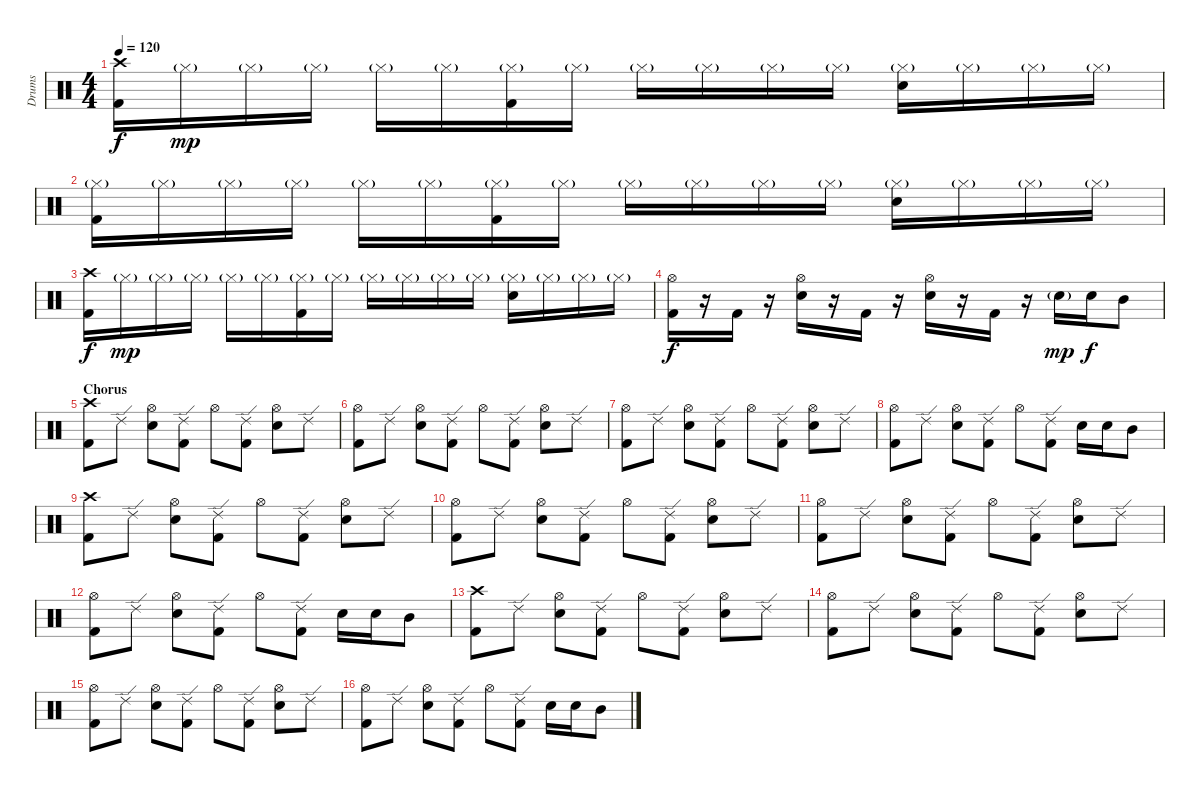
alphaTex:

\track ("Drums" "Drums") {instrument percussion}
\staff {score}
\articulation defaults
\ts (4 4)
\tempo 120
\clef neutral
\ks c
("Crash high (hit)" "Kick (hit) 2").16{dy f} "Hi-Hat (closed)"{g}.16{dy mp} "Hi-Hat (closed)"{g}.16 "Hi-Hat (closed)"{g}.16 "Hi-Hat (closed)"{g}.16 "Hi-Hat (closed)"{g}.16 ("Hi-Hat (closed)"{g} "Kick (hit) 2").16 "Hi-Hat (closed)"{g}.16 "Hi-Hat (closed)"{g}.16 "Hi-Hat (closed)"{g}.16 "Hi-Hat (closed)"{g}.16 "Hi-Hat (closed)"{g}.16 ("Hi-Hat (closed)"{g} "Electric Snare (hit)").16 "Hi-Hat (closed)"{g}.16 "Hi-Hat (closed)"{g}.16 "Hi-Hat (closed)"{g}.16 |
("Hi-Hat (closed)"{g} "Kick (hit) 2").16 "Hi-Hat (closed)"{g}.16 "Hi-Hat (closed)"{g}.16 "Hi-Hat (closed)"{g}.16 "Hi-Hat (closed)"{g}.16 "Hi-Hat (closed)"{g}.16 ("Hi-Hat (closed)"{g} "Kick (hit) 2").16 "Hi-Hat (closed)"{g}.16 "Hi-Hat (closed)"{g}.16 "Hi-Hat (closed)"{g}.16 "Hi-Hat (closed)"{g}.16 "Hi-Hat (closed)"{g}.16 ("Hi-Hat (closed)"{g} "Electric Snare (hit)").16 "Hi-Hat (closed)"{g}.16 "Hi-Hat (closed)"{g}.16 "Hi-Hat (closed)"{g}.16 |
("Crash high (hit)" "Kick (hit) 2").16{dy f} "Hi-Hat (closed)"{g}.16{dy mp} "Hi-Hat (closed)"{g}.16 "Hi-Hat (closed)"{g}.16 "Hi-Hat (closed)"{g}.16 "Hi-Hat (closed)"{g}.16 ("Hi-Hat (closed)"{g} "Kick (hit) 2").16 "Hi-Hat (closed)"{g}.16 "Hi-Hat (closed)"{g}.16 "Hi-Hat (closed)"{g}.16 "Hi-Hat (closed)"{g}.16 "Hi-Hat (closed)"{g}.16 ("Hi-Hat (closed)"{g} "Electric Snare (hit)").16 "Hi-Hat (closed)"{g}.16 "Hi-Hat (closed)"{g}.16 "Hi-Hat (closed)"{g}.16 |
("Hi-Hat (open)" "Kick (hit) 2").16{dy f} r.16 "Kick (hit) 2".16 r.16 ("Hi-Hat (open)" "Electric Snare (hit)").16 r.16 "Kick (hit) 2".16 r.16 ("Hi-Hat (open)" "Electric Snare (hit)").16 r.16 "Kick (hit) 2".16 r.16 "Electric Snare (hit)"{g}.16{dy mp} "Electric Snare (hit)".16{dy f} "Mid Tom (hit)".8 |
\section ("" "Chorus")
("Crash high (hit)" "Kick (hit) 2").8 "Ride (edge) 2".8 ("Hi-Hat (open)" "Electric Snare (hit)").8 ("Ride (edge) 2" "Kick (hit) 2").8 "Hi-Hat (open)".8 ("Ride (edge) 2" "Kick (hit) 2").8 ("Hi-Hat (open)" "Electric Snare (hit)").8 "Ride (edge) 2".8 |
("Hi-Hat (open)" "Kick (hit) 2").8 "Ride (edge) 2".8 ("Hi-Hat (open)" "Electric Snare (hit)").8 ("Ride (edge) 2" "Kick (hit) 2").8 "Hi-Hat (open)".8 ("Ride (edge) 2" "Kick (hit) 2").8 ("Hi-Hat (open)" "Electric Snare (hit)").8 "Ride (edge) 2".8 |
("Hi-Hat (open)" "Kick (hit) 2").8 "Ride (edge) 2".8 ("Hi-Hat (open)" "Electric Snare (hit)").8 ("Ride (edge) 2" "Kick (hit) 2").8 "Hi-Hat (open)".8 ("Ride (edge) 2" "Kick (hit) 2").8 ("Hi-Hat (open)" "Electric Snare (hit)").8 "Ride (edge) 2".8 |
("Hi-Hat (open)" "Kick (hit) 2").8 "Ride (edge) 2".8 ("Hi-Hat (open)" "Electric Snare (hit)").8 ("Ride (edge) 2" "Kick (hit) 2").8 "Hi-Hat (open)".8 ("Ride (edge) 2" "Kick (hit) 2").8 "Electric Snare (hit)".16 "Electric Snare (hit)".16 "Mid Tom (hit)".8 |
("Crash high (hit)" "Kick (hit) 2").8 "Ride (edge) 2".8 ("Hi-Hat (open)" "Electric Snare (hit)").8 ("Ride (edge) 2" "Kick (hit) 2").8 "Hi-Hat (open)".8 ("Ride (edge) 2" "Kick (hit) 2").8 ("Hi-Hat (open)" "Electric Snare (hit)").8 "Ride (edge) 2".8 |
("Hi-Hat (open)" "Kick (hit) 2").8 "Ride (edge) 2".8 ("Hi-Hat (open)" "Electric Snare (hit)").8 ("Ride (edge) 2" "Kick (hit) 2").8 "Hi-Hat (open)".8 ("Ride (edge) 2" "Kick (hit) 2").8 ("Hi-Hat (open)" "Electric Snare (hit)").8 "Ride (edge) 2".8 |
("Hi-Hat (open)" "Kick (hit) 2").8 "Ride (edge) 2".8 ("Hi-Hat (open)" "Electric Snare (hit)").8 ("Ride (edge) 2" "Kick (hit) 2").8 "Hi-Hat (open)".8 ("Ride (edge) 2" "Kick (hit) 2").8 ("Hi-Hat (open)" "Electric Snare (hit)").8 "Ride (edge) 2".8 |
("Hi-Hat (open)" "Kick (hit) 2").8 "Ride (edge) 2".8 ("Hi-Hat (open)" "Electric Snare (hit)").8 ("Ride (edge) 2" "Kick (hit) 2").8 "Hi-Hat (open)".8 ("Ride (edge) 2" "Kick (hit) 2").8 "Electric Snare (hit)".16 "Electric Snare (hit)".16 "Mid Tom (hit)".8 |
("Crash high (hit)" "Kick (hit) 2").8 "Ride (edge) 2".8 ("Hi-Hat (open)" "Electric Snare (hit)").8 ("Ride (edge) 2" "Kick (hit) 2").8 "Hi-Hat (open)".8 ("Ride (edge) 2" "Kick (hit) 2").8 ("Hi-Hat (open)" "Electric Snare (hit)").8 "Ride (edge) 2".8 |
("Hi-Hat (open)" "Kick (hit) 2").8 "Ride (edge) 2".8 ("Hi-Hat (open)" "Electric Snare (hit)").8 ("Ride (edge) 2" "Kick (hit) 2").8 "Hi-Hat (open)".8 ("Ride (edge) 2" "Kick (hit) 2").8 ("Hi-Hat (open)" "Electric Snare (hit)").8 "Ride (edge) 2".8 |
("Hi-Hat (open)" "Kick (hit) 2").8 "Ride (edge) 2".8 ("Hi-Hat (open)" "Electric Snare (hit)").8 ("Ride (edge) 2" "Kick (hit) 2").8 "Hi-Hat (open)".8 ("Ride (edge) 2" "Kick (hit) 2").8 ("Hi-Hat (open)" "Electric Snare (hit)").8 "Ride (edge) 2".8 |
("Hi-Hat (open)" "Kick (hit) 2").8 "Ride (edge) 2".8 ("Hi-Hat (open)" "Electric Snare (hit)").8 ("Ride (edge) 2" "Kick (hit) 2").8 "Hi-Hat (open)".8 ("Ride (edge) 2" "Kick (hit) 2").8 "Electric Snare (hit)".16 "Electric Snare (hit)".16 "Mid Tom (hit)".8
